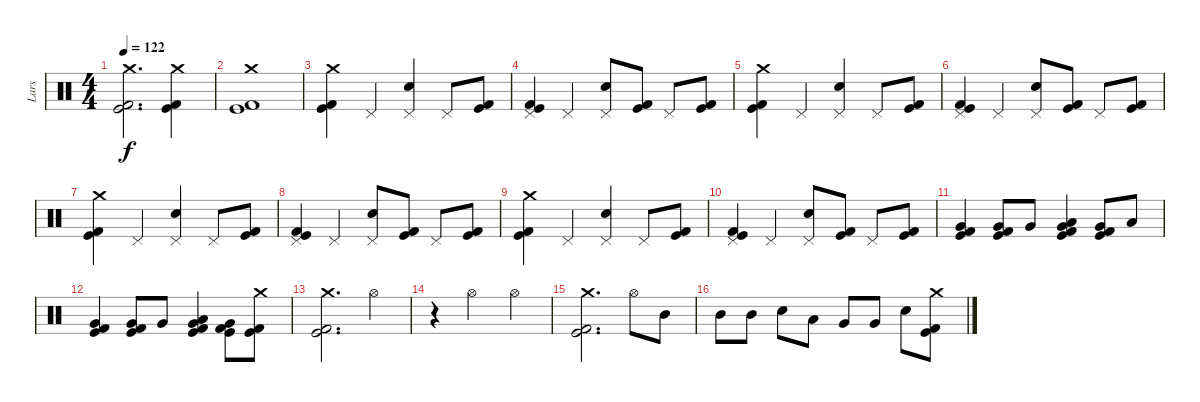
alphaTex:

\track ("Lars" "Lars") {instrument percussion}
\staff {score}
\articulation defaults
\ts (4 4)
\tempo 122
\clef neutral
\ks c
("Crash medium (hit)" "Kick (hit)" "Kick (hit) 2").2{d dy f} ("Crash medium (hit)" "Kick (hit)" "Kick (hit) 2").4 |
("Crash medium (hit)" "Kick (hit)" "Kick (hit) 2").1 |
("Crash medium (hit)" "Kick (hit)" "Kick (hit) 2").4 "Pedal Hi-Hat (hit)".4 ("Pedal Hi-Hat (hit)" "Electric Snare (hit)").4 "Pedal Hi-Hat (hit)".8 ("Kick (hit)" "Kick (hit) 2").8 |
("Pedal Hi-Hat (hit)" "Kick (hit)" "Kick (hit) 2").4 "Pedal Hi-Hat (hit)".4 ("Pedal Hi-Hat (hit)" "Electric Snare (hit)").8 ("Kick (hit)" "Kick (hit) 2").8 "Pedal Hi-Hat (hit)".8 ("Kick (hit)" "Kick (hit) 2").8 |
("Crash medium (hit)" "Kick (hit)" "Kick (hit) 2").4 "Pedal Hi-Hat (hit)".4 ("Pedal Hi-Hat (hit)" "Electric Snare (hit)").4 "Pedal Hi-Hat (hit)".8 ("Kick (hit)" "Kick (hit) 2").8 |
("Pedal Hi-Hat (hit)" "Kick (hit)" "Kick (hit) 2").4 "Pedal Hi-Hat (hit)".4 ("Pedal Hi-Hat (hit)" "Electric Snare (hit)").8 ("Kick (hit)" "Kick (hit) 2").8 "Pedal Hi-Hat (hit)".8 ("Kick (hit)" "Kick (hit) 2").8 |
("Crash medium (hit)" "Kick (hit)" "Kick (hit) 2").4 "Pedal Hi-Hat (hit)".4 ("Pedal Hi-Hat (hit)" "Electric Snare (hit)").4 "Pedal Hi-Hat (hit)".8 ("Kick (hit)" "Kick (hit) 2").8 |
("Pedal Hi-Hat (hit)" "Kick (hit)" "Kick (hit) 2").4 "Pedal Hi-Hat (hit)".4 ("Pedal Hi-Hat (hit)" "Electric Snare (hit)").8 ("Kick (hit)" "Kick (hit) 2").8 "Pedal Hi-Hat (hit)".8 ("Kick (hit)" "Kick (hit) 2").8 |
("Crash medium (hit)" "Kick (hit)" "Kick (hit) 2").4 "Pedal Hi-Hat (hit)".4 ("Pedal Hi-Hat (hit)" "Electric Snare (hit)").4 "Pedal Hi-Hat (hit)".8 ("Kick (hit)" "Kick (hit) 2").8 |
("Pedal Hi-Hat (hit)" "Kick (hit)" "Kick (hit) 2").4 "Pedal Hi-Hat (hit)".4 ("Pedal Hi-Hat (hit)" "Electric Snare (hit)").8 ("Kick (hit)" "Kick (hit) 2").8 "Pedal Hi-Hat (hit)".8 ("Kick (hit)" "Kick (hit) 2").8 |
("Very Low Tom (hit)" "Kick (hit)" "Kick (hit) 2").4 ("Very Low Tom (hit)" "Kick (hit)" "Kick (hit) 2").8 "Very Low Tom (hit)".8 ("Very Low Tom (hit)" "Kick (hit)" "Kick (hit) 2" "Low Tom (hit)").4 ("Very Low Tom (hit)" "Kick (hit)" "Kick (hit) 2").8 "Low Tom (hit)".8 |
("Very Low Tom (hit)" "Kick (hit)" "Kick (hit) 2").4 ("Very Low Tom (hit)" "Kick (hit)" "Kick (hit) 2").8 "Very Low Tom (hit)".8 ("Very Low Tom (hit)" "Kick (hit)" "Kick (hit) 2" "Low Tom (hit)").4 ("Very Low Tom (hit)" "Kick (hit)" "Kick (hit) 2").8 ("Crash medium (hit)" "Kick (hit)" "Kick (hit) 2").8 |
("Crash medium (hit)" "Kick (hit)" "Kick (hit) 2").2{d} "Hi-Hat (open)".4 |
r.4 "Hi-Hat (open)".2 "Hi-Hat (open)".4 |
("Crash medium (hit)" "Kick (hit)" "Kick (hit) 2").2{d} "Hi-Hat (open)".8 "Mid Tom (hit)".8 |
"Mid Tom (hit)".8 "Mid Tom (hit)".8 "Electric Snare (hit)".8 "Low Tom (hit)".8 "Very Low Tom (hit)".8 "Very Low Tom (hit)".8 "Electric Snare (hit)".8 ("Crash medium (hit)" "Kick (hit)" "Kick (hit) 2").8
